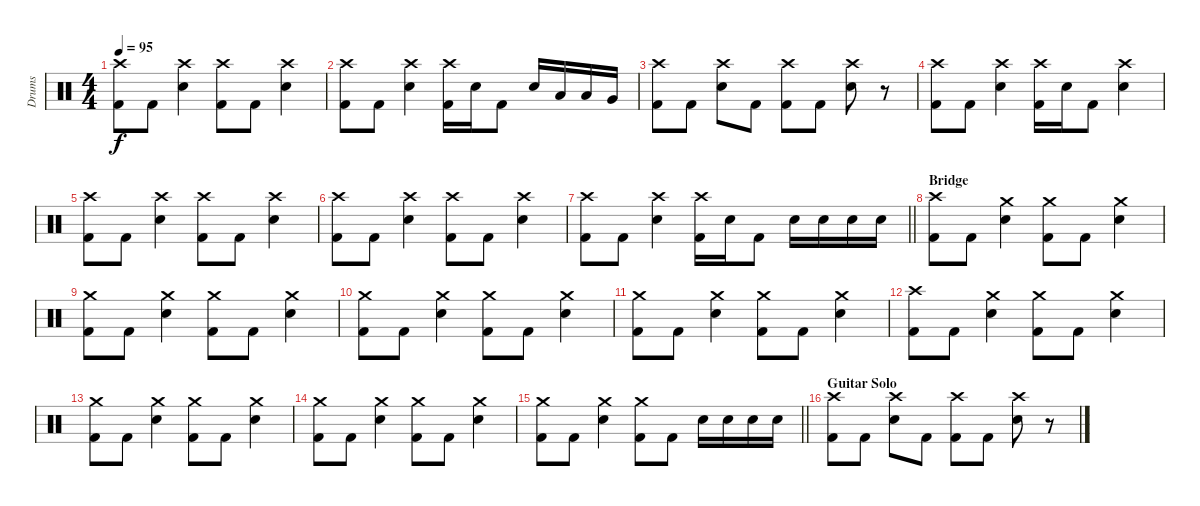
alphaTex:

\track ("Drums" "Drums") {instrument percussion}
\staff {score}
\articulation defaults
\ts (4 4)
\tempo 95
\clef neutral
\ks c
("Crash high (hit)" "Kick (hit) 2").8{dy f} "Kick (hit) 2".8 ("Crash high (hit)" "Electric Snare (hit)").4 ("Crash high (hit)" "Kick (hit) 2").8 "Kick (hit) 2".8 ("Crash high (hit)" "Electric Snare (hit)").4 |
("Crash high (hit)" "Kick (hit) 2").8 "Kick (hit) 2".8 ("Crash high (hit)" "Electric Snare (hit)").4 ("Crash high (hit)" "Kick (hit) 2").16 "Electric Snare (hit)".16 "Kick (hit) 2".8 "Electric Snare (hit)".16 "Low Tom (hit)".16 "Low Tom (hit)".16 "Very Low Tom (hit)".16 |
("Crash high (hit)" "Kick (hit) 2").8 "Kick (hit) 2".8 ("Crash high (hit)" "Electric Snare (hit)").8 "Kick (hit) 2".8 ("Crash high (hit)" "Kick (hit) 2").8 "Kick (hit) 2".8 ("Crash high (hit)" "Electric Snare (hit)").8 r.8 |
("Crash high (hit)" "Kick (hit) 2").8 "Kick (hit) 2".8 ("Crash high (hit)" "Electric Snare (hit)").4 ("Crash high (hit)" "Kick (hit) 2").16 "Electric Snare (hit)".16 "Kick (hit) 2".8 ("Crash high (hit)" "Electric Snare (hit)").4 |
("Crash high (hit)" "Kick (hit) 2").8 "Kick (hit) 2".8 ("Crash high (hit)" "Electric Snare (hit)").4 ("Crash high (hit)" "Kick (hit) 2").8 "Kick (hit) 2".8 ("Crash high (hit)" "Electric Snare (hit)").4 |
("Crash high (hit)" "Kick (hit) 2").8 "Kick (hit) 2".8 ("Crash high (hit)" "Electric Snare (hit)").4 ("Crash high (hit)" "Kick (hit) 2").8 "Kick (hit) 2".8 ("Crash high (hit)" "Electric Snare (hit)").4 |
\barLineRight lightlight
("Crash high (hit)" "Kick (hit) 2").8 "Kick (hit) 2".8 ("Crash high (hit)" "Electric Snare (hit)").4 ("Crash high (hit)" "Kick (hit) 2").16 "Electric Snare (hit)".16 "Kick (hit) 2".8 "Electric Snare (hit)".16 "Electric Snare (hit)".16 "Electric Snare (hit)".16 "Electric Snare (hit)".16 |
\section ("" "Bridge")
("Crash high (hit)" "Kick (hit) 2").8 "Kick (hit) 2".8 ("Crash medium (hit)" "Electric Snare (hit)").4 ("Crash medium (hit)" "Kick (hit) 2").8 "Kick (hit) 2".8 ("Crash medium (hit)" "Electric Snare (hit)").4 |
("Crash medium (hit)" "Kick (hit) 2").8 "Kick (hit) 2".8 ("Crash medium (hit)" "Electric Snare (hit)").4 ("Crash medium (hit)" "Kick (hit) 2").8 "Kick (hit) 2".8 ("Crash medium (hit)" "Electric Snare (hit)").4 |
("Crash medium (hit)" "Kick (hit) 2").8 "Kick (hit) 2".8 ("Crash medium (hit)" "Electric Snare (hit)").4 ("Crash medium (hit)" "Kick (hit) 2").8 "Kick (hit) 2".8 ("Crash medium (hit)" "Electric Snare (hit)").4 |
("Crash medium (hit)" "Kick (hit) 2").8 "Kick (hit) 2".8 ("Crash medium (hit)" "Electric Snare (hit)").4 ("Crash medium (hit)" "Kick (hit) 2").8 "Kick (hit) 2".8 ("Crash medium (hit)" "Electric Snare (hit)").4 |
("Crash high (hit)" "Kick (hit) 2").8 "Kick (hit) 2".8 ("Crash medium (hit)" "Electric Snare (hit)").4 ("Crash medium (hit)" "Kick (hit) 2").8 "Kick (hit) 2".8 ("Crash medium (hit)" "Electric Snare (hit)").4 |
("Crash medium (hit)" "Kick (hit) 2").8 "Kick (hit) 2".8 ("Crash medium (hit)" "Electric Snare (hit)").4 ("Crash medium (hit)" "Kick (hit) 2").8 "Kick (hit) 2".8 ("Crash medium (hit)" "Electric Snare (hit)").4 |
("Crash medium (hit)" "Kick (hit) 2").8 "Kick (hit) 2".8 ("Crash medium (hit)" "Electric Snare (hit)").4 ("Crash medium (hit)" "Kick (hit) 2").8 "Kick (hit) 2".8 ("Crash medium (hit)" "Electric Snare (hit)").4 |
\barLineRight lightlight
("Crash medium (hit)" "Kick (hit) 2").8 "Kick (hit) 2".8 ("Crash medium (hit)" "Electric Snare (hit)").4 ("Crash medium (hit)" "Kick (hit) 2").8 "Kick (hit) 2".8 "Electric Snare (hit)".16 "Electric Snare (hit)".16 "Electric Snare (hit)".16 "Electric Snare (hit)".16 |
\section ("" "Guitar Solo")
("Crash high (hit)" "Kick (hit) 2").8 "Kick (hit) 2".8 ("Crash high (hit)" "Electric Snare (hit)").8 "Kick (hit) 2".8 ("Crash high (hit)" "Kick (hit) 2").8 "Kick (hit) 2".8 ("Crash high (hit)" "Electric Snare (hit)").8 r.8
